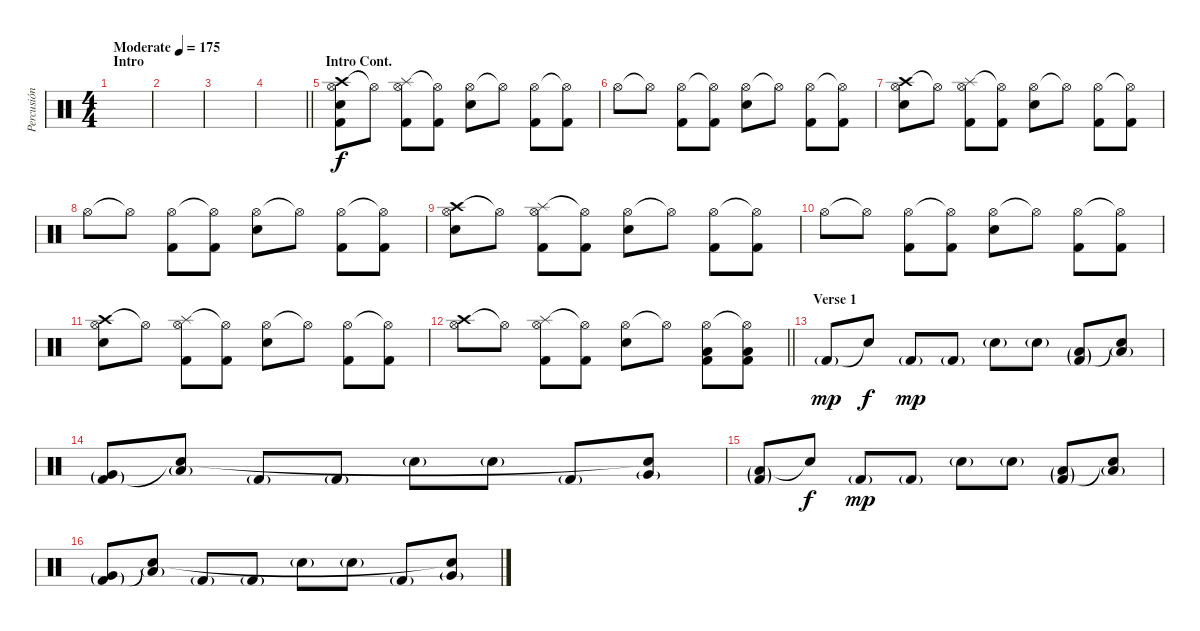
\track ("Percusión" "Percusión") {instrument percussion}
\staff {score}
\articulation defaults
\ts (4 4)
\section ("" "Intro")
\tempo (175 "Moderate")
\clef neutral
\ks c
|
|
|
\barLineRight lightlight
|
\section ("" "Intro Cont.")
("Crash high (hit)" "Hi-Hat (open)" "Electric Snare (hit)" "Kick (hit) 2").8 "Hi-Hat (open)"{t}.8 ("Splash (hit)" "Hi-Hat (open)" "Kick (hit) 2").8 ("Hi-Hat (open)"{t} "Kick (hit) 2").8 ("Hi-Hat (open)" "Electric Snare (hit)").8 "Hi-Hat (open)"{t}.8 ("Hi-Hat (open)" "Kick (hit) 2").8 ("Hi-Hat (open)"{t} "Kick (hit) 2").8 |
"Hi-Hat (open)".8 "Hi-Hat (open)"{t}.8 ("Hi-Hat (open)" "Kick (hit) 2").8 ("Hi-Hat (open)"{t} "Kick (hit) 2").8 ("Hi-Hat (open)" "Electric Snare (hit)").8 "Hi-Hat (open)"{t}.8 ("Hi-Hat (open)" "Kick (hit) 2").8 ("Hi-Hat (open)"{t} "Kick (hit) 2").8 |
("Crash high (hit)" "Hi-Hat (open)" "Electric Snare (hit)").8 "Hi-Hat (open)"{t}.8 ("Splash (hit)" "Hi-Hat (open)" "Kick (hit) 2").8 ("Hi-Hat (open)"{t} "Kick (hit) 2").8 ("Hi-Hat (open)" "Electric Snare (hit)").8 "Hi-Hat (open)"{t}.8 ("Hi-Hat (open)" "Kick (hit) 2").8 ("Hi-Hat (open)"{t} "Kick (hit) 2").8 |
"Hi-Hat (open)".8 "Hi-Hat (open)"{t}.8 ("Hi-Hat (open)" "Kick (hit) 2").8 ("Hi-Hat (open)"{t} "Kick (hit) 2").8 ("Hi-Hat (open)" "Electric Snare (hit)").8 "Hi-Hat (open)"{t}.8 ("Hi-Hat (open)" "Kick (hit) 2").8 ("Hi-Hat (open)"{t} "Kick (hit) 2").8 |
("Crash high (hit)" "Hi-Hat (open)" "Electric Snare (hit)").8 "Hi-Hat (open)"{t}.8 ("Splash (hit)" "Hi-Hat (open)" "Kick (hit) 2").8 ("Hi-Hat (open)"{t} "Kick (hit) 2").8 ("Hi-Hat (open)" "Electric Snare (hit)").8 "Hi-Hat (open)"{t}.8 ("Hi-Hat (open)" "Kick (hit) 2").8 ("Hi-Hat (open)"{t} "Kick (hit) 2").8 |
"Hi-Hat (open)".8 "Hi-Hat (open)"{t}.8 ("Hi-Hat (open)" "Kick (hit) 2").8 ("Hi-Hat (open)"{t} "Kick (hit) 2").8 ("Hi-Hat (open)" "Electric Snare (hit)").8 "Hi-Hat (open)"{t}.8 ("Hi-Hat (open)" "Kick (hit) 2").8 ("Hi-Hat (open)"{t} "Kick (hit) 2").8 |
("Crash high (hit)" "Hi-Hat (open)" "Electric Snare (hit)").8 "Hi-Hat (open)"{t}.8 ("Splash (hit)" "Hi-Hat (open)" "Kick (hit) 2").8 ("Hi-Hat (open)"{t} "Kick (hit) 2").8 ("Hi-Hat (open)" "Electric Snare (hit)").8 "Hi-Hat (open)"{t}.8 ("Hi-Hat (open)" "Kick (hit) 2").8 ("Hi-Hat (open)"{t} "Kick (hit) 2").8 |
\barLineRight lightlight
("Crash high (hit)" "Hi-Hat (open)").8 "Hi-Hat (open)"{t}.8 ("Splash (hit)" "Hi-Hat (open)" "Kick (hit) 2").8 ("Hi-Hat (open)"{t} "Kick (hit) 2").8 ("Hi-Hat (open)" "Electric Snare (hit)").8 "Hi-Hat (open)"{t}.8 ("Hi-Hat (open)" "Low Floor Tom (hit)" "Kick (hit) 2").8 ("Hi-Hat (open)"{t} "Low Floor Tom (hit)" "Kick (hit) 2").8 |
\section ("" "Verse 1")
"Kick (hit) 2"{g}.8{dy mp volume 8} "Snare (hit)"{t}.8{dy f} "Kick (hit) 2"{g}.8{dy mp} "Kick (hit) 2"{g}.8 "Electric Snare (hit)"{g}.8 "Electric Snare (hit)"{g}.8 ("Low Floor Tom (hit)"{g} "Kick (hit) 2"{g}).8 ("Low Floor Tom (hit)"{g} "Snare (hit)"{t}).8 |
("Very Low Tom (hit)"{g} "Kick (hit) 2"{g}).8 ("Low Floor Tom (hit)"{g} "Snare (hit)"{t}).8 "Kick (hit) 2"{g}.8 "Kick (hit) 2"{g}.8 "Electric Snare (hit)"{g}.8 "Electric Snare (hit)"{g}.8 "Kick (hit) 2"{g}.8 ("Very Low Tom (hit)"{g} "Snare (hit)"{t}).8 |
("Low Floor Tom (hit)"{g} "Kick (hit) 2"{g}).8 "Snare (hit)"{t}.8{dy f} "Kick (hit) 2"{g}.8{dy mp} "Kick (hit) 2"{g}.8 "Electric Snare (hit)"{g}.8 "Electric Snare (hit)"{g}.8 ("Low Floor Tom (hit)"{g} "Kick (hit) 2"{g}).8 ("Low Floor Tom (hit)"{g} "Snare (hit)"{t}).8 |
("Very Low Tom (hit)"{g} "Kick (hit) 2"{g}).8 ("Low Floor Tom (hit)"{g} "Snare (hit)"{t}).8 "Kick (hit) 2"{g}.8 "Kick (hit) 2"{g}.8 "Electric Snare (hit)"{g}.8 "Electric Snare (hit)"{g}.8 "Kick (hit) 2"{g}.8 ("Very Low Tom (hit)"{g} "Snare (hit)"{t}).8
